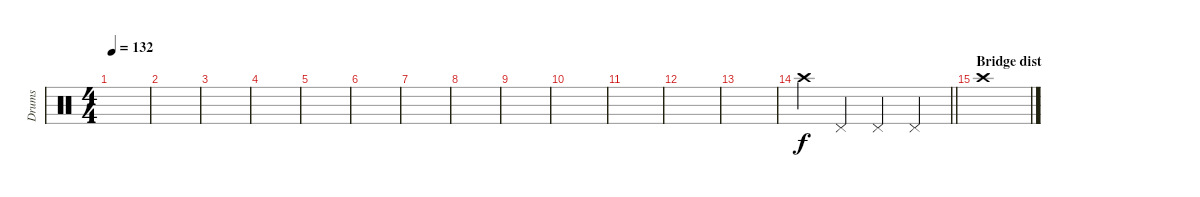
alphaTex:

\track ("Drums" "Drums") {instrument percussion}
\staff {score}
\articulation defaults
\ts (4 4)
\tempo 132
\clef neutral
\ks c
|
|
|
|
|
|
|
|
|
|
|
|
|
\barLineRight lightlight "Crash high (hit)".4 "Pedal Hi-Hat (hit)".4 "Pedal Hi-Hat (hit)".4 "Pedal Hi-Hat (hit)".4
|
\section ("" "Bridge dist")
"Crash high (hit)".1
